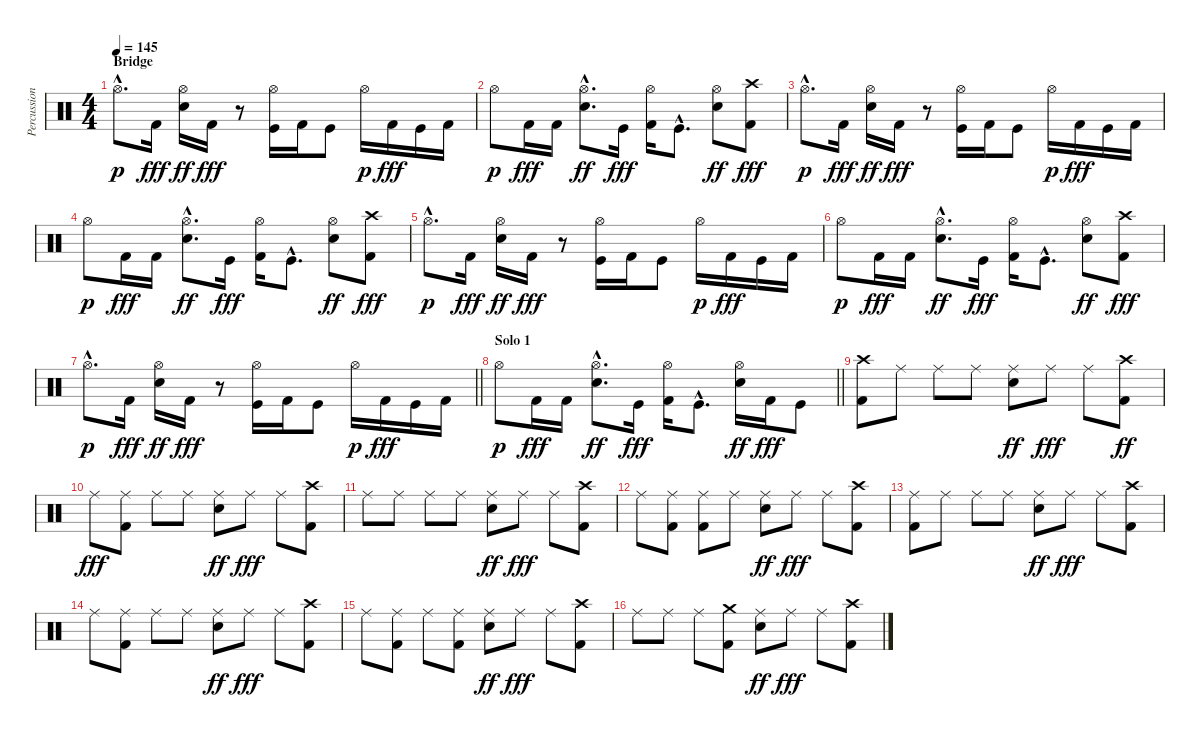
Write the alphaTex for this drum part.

\track ("Percussion" "Percussion") {instrument percussion}
\staff {score}
\articulation defaults
\ts (4 4)
\section ("" "Bridge")
\tempo 145
\clef neutral
\ks c "Hi-Hat (open)"{hac}.8{d dy p} "Kick (hit) 2".16{dy fff}
("Hi-Hat (open)" "Snare (hit) 2").16{dy ff} "Kick (hit) 2".16{dy fff} r.8 ("Hi-Hat (open)" "Kick (hit)").16 "Kick (hit) 2".16 "Kick (hit)".8 "Hi-Hat (open)".16{dy p} "Kick (hit) 2".16{dy fff} "Kick (hit)".16 "Kick (hit) 2".16 |
"Hi-Hat (open)".8{dy p} "Kick (hit) 2".16{dy fff} "Kick (hit) 2".16 ("Hi-Hat (open)"{hac} "Snare (hit) 2"{hac}).8{d dy ff} "Kick (hit)".16{dy fff} ("Hi-Hat (open)" "Kick (hit) 2").16 "Kick (hit)"{hac}.8{d} ("Hi-Hat (open)" "Snare (hit) 2").8{dy ff} ("Crash high (hit)" "Kick (hit) 2").8{dy fff} |
"Hi-Hat (open)"{hac}.8{d dy p} "Kick (hit) 2".16{dy fff} ("Hi-Hat (open)" "Snare (hit) 2").16{dy ff} "Kick (hit) 2".16{dy fff} r.8 ("Hi-Hat (open)" "Kick (hit)").16 "Kick (hit) 2".16 "Kick (hit)".8 "Hi-Hat (open)".16{dy p} "Kick (hit) 2".16{dy fff} "Kick (hit)".16 "Kick (hit) 2".16 |
"Hi-Hat (open)".8{dy p} "Kick (hit) 2".16{dy fff} "Kick (hit) 2".16 ("Hi-Hat (open)"{hac} "Snare (hit) 2"{hac}).8{d dy ff} "Kick (hit)".16{dy fff} ("Hi-Hat (open)" "Kick (hit) 2").16 "Kick (hit)"{hac}.8{d} ("Hi-Hat (open)" "Snare (hit) 2").8{dy ff} ("Crash high (hit)" "Kick (hit) 2").8{dy fff} |
"Hi-Hat (open)"{hac}.8{d dy p} "Kick (hit) 2".16{dy fff} ("Hi-Hat (open)" "Snare (hit) 2").16{dy ff} "Kick (hit) 2".16{dy fff} r.8 ("Hi-Hat (open)" "Kick (hit)").16 "Kick (hit) 2".16 "Kick (hit)".8 "Hi-Hat (open)".16{dy p} "Kick (hit) 2".16{dy fff} "Kick (hit)".16 "Kick (hit) 2".16 |
"Hi-Hat (open)".8{dy p} "Kick (hit) 2".16{dy fff} "Kick (hit) 2".16 ("Hi-Hat (open)"{hac} "Snare (hit) 2"{hac}).8{d dy ff} "Kick (hit)".16{dy fff} ("Hi-Hat (open)" "Kick (hit) 2").16 "Kick (hit)"{hac}.8{d} ("Hi-Hat (open)" "Snare (hit) 2").8{dy ff} ("Crash high (hit)" "Kick (hit) 2").8{dy fff} |
\barLineRight lightlight "Hi-Hat (open)"{hac}.8{d dy p} "Kick (hit) 2".16{dy fff}
("Hi-Hat (open)" "Snare (hit) 2").16{dy ff} "Kick (hit) 2".16{dy fff} r.8 ("Hi-Hat (open)" "Kick (hit)").16 "Kick (hit) 2".16 "Kick (hit)".8 "Hi-Hat (open)".16{dy p} "Kick (hit) 2".16{dy fff} "Kick (hit)".16 "Kick (hit) 2".16 |
\section ("" "Solo 1")
\barLineRight lightlight "Hi-Hat (open)".8{dy p} "Kick (hit) 2".16{dy fff} "Kick (hit) 2".16
("Hi-Hat (open)"{hac} "Snare (hit) 2"{hac}).8{d dy ff} "Kick (hit)".16{dy fff} ("Hi-Hat (open)" "Kick (hit) 2").16 "Kick (hit)"{hac}.8{d} ("Hi-Hat (open)" "Snare (hit) 2").16{dy ff} "Kick (hit) 2".16{dy fff} "Kick (hit)".8 |
("Crash high (hit)" "Kick (hit) 2").8 "Ride (middle)".8 "Ride (middle)".8 "Ride (middle)".8 ("Ride (middle)" "Snare (hit) 2").8{dy ff} "Ride (middle)".8{dy fff} "Ride (middle)".8 ("Crash high (hit)" "Kick (hit) 2").8{dy ff} |
"Ride (middle)".8{dy fff} ("Ride (middle)" "Kick (hit) 2").8 "Ride (middle)".8 "Ride (middle)".8 ("Ride (middle)" "Snare (hit) 2").8{dy ff} "Ride (middle)".8{dy fff} "Ride (middle)".8 ("Crash high (hit)" "Kick (hit) 2").8 |
"Ride (middle)".8 "Ride (middle)".8 "Ride (middle)".8 "Ride (middle)".8 ("Ride (middle)" "Snare (hit) 2").8{dy ff} "Ride (middle)".8{dy fff} "Ride (middle)".8 ("Crash high (hit)" "Kick (hit) 2").8 |
"Ride (middle)".8 ("Ride (middle)" "Kick (hit) 2").8 ("Ride (middle)" "Kick (hit) 2").8 "Ride (middle)".8 ("Ride (middle)" "Snare (hit) 2").8{dy ff} "Ride (middle)".8{dy fff} "Ride (middle)".8 ("Crash high (hit)" "Kick (hit) 2").8 |
("Ride (middle)" "Kick (hit) 2").8 "Ride (middle)".8 "Ride (middle)".8 "Ride (middle)".8 ("Ride (middle)" "Snare (hit) 2").8{dy ff} "Ride (middle)".8{dy fff} "Ride (middle)".8 ("Crash high (hit)" "Kick (hit) 2").8 |
"Ride (middle)".8 ("Ride (middle)" "Kick (hit) 2").8 "Ride (middle)".8 "Ride (middle)".8 ("Ride (middle)" "Snare (hit) 2").8{dy ff} "Ride (middle)".8{dy fff} "Ride (middle)".8 ("Crash high (hit)" "Kick (hit) 2").8 |
"Ride (middle)".8 ("Ride (middle)" "Kick (hit) 2").8 "Ride (middle)".8 ("Ride (middle)" "Kick (hit) 2").8 ("Ride (middle)" "Snare (hit) 2").8{dy ff} "Ride (middle)".8{dy fff} "Ride (middle)".8 ("Crash high (hit)" "Kick (hit) 2").8 |
"Ride (middle)".8 "Ride (middle)".8 "Ride (middle)".8 ("Crash medium (hit)" "Kick (hit) 2").8 ("Ride (middle)" "Snare (hit) 2").8{dy ff} "Ride (middle)".8{dy fff} "Ride (middle)".8 ("Crash high (hit)" "Kick (hit) 2").8
